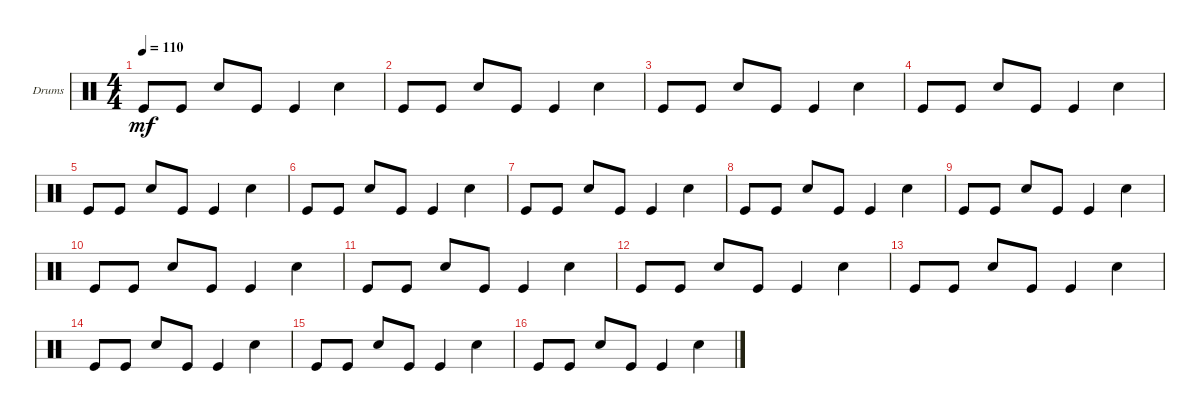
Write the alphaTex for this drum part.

\defaultSystemsLayout 4
\bracketExtendMode groupsimilarinstruments
\firstSystemTrackNameOrientation horizontal
\otherSystemsTrackNameOrientation horizontal
\track ("Drumkit" "Drums") {instrument percussion}
\staff {score}
\articulation defaults
\ts (4 4)
\tempo 110
\clef neutral
\scale
0.333333
\ks c "Kick (hit)".8{dy mf} "Kick (hit)".8 "Snare (hit) 2".8 "Kick (hit)".8 "Kick (hit)".4 "Snare (hit) 2".4
|
\scale
0.333333 "Kick (hit)".8 "Kick (hit)".8 "Snare (hit) 2".8 "Kick (hit)".8 "Kick (hit)".4 "Snare (hit) 2".4 |
\scale
0.333333 "Kick (hit)".8 "Kick (hit)".8 "Snare (hit) 2".8 "Kick (hit)".8 "Kick (hit)".4 "Snare (hit) 2".4 |
\scale
0.333333 "Kick (hit)".8 "Kick (hit)".8 "Snare (hit) 2".8 "Kick (hit)".8 "Kick (hit)".4 "Snare (hit) 2".4 |
\scale
0.333333 "Kick (hit)".8 "Kick (hit)".8 "Snare (hit) 2".8 "Kick (hit)".8 "Kick (hit)".4 "Snare (hit) 2".4 |
\scale
0.333333 "Kick (hit)".8 "Kick (hit)".8 "Snare (hit) 2".8 "Kick (hit)".8 "Kick (hit)".4 "Snare (hit) 2".4 |
\scale
0.333333 "Kick (hit)".8 "Kick (hit)".8 "Snare (hit) 2".8 "Kick (hit)".8 "Kick (hit)".4 "Snare (hit) 2".4 |
\scale
0.333333 "Kick (hit)".8 "Kick (hit)".8 "Snare (hit) 2".8 "Kick (hit)".8 "Kick (hit)".4 "Snare (hit) 2".4 |
\scale
0.333333 "Kick (hit)".8 "Kick (hit)".8 "Snare (hit) 2".8 "Kick (hit)".8 "Kick (hit)".4 "Snare (hit) 2".4 |
\scale
0.333333 "Kick (hit)".8 "Kick (hit)".8 "Snare (hit) 2".8 "Kick (hit)".8 "Kick (hit)".4 "Snare (hit) 2".4 |
\scale
0.333333 "Kick (hit)".8 "Kick (hit)".8 "Snare (hit) 2".8 "Kick (hit)".8 "Kick (hit)".4 "Snare (hit) 2".4 |
\scale
0.333333 "Kick (hit)".8 "Kick (hit)".8 "Snare (hit) 2".8 "Kick (hit)".8 "Kick (hit)".4 "Snare (hit) 2".4 |
\scale
0.333333 "Kick (hit)".8 "Kick (hit)".8 "Snare (hit) 2".8 "Kick (hit)".8 "Kick (hit)".4 "Snare (hit) 2".4 |
\scale
0.333333 "Kick (hit)".8 "Kick (hit)".8 "Snare (hit) 2".8 "Kick (hit)".8 "Kick (hit)".4 "Snare (hit) 2".4 |
\scale
0.333333 "Kick (hit)".8 "Kick (hit)".8 "Snare (hit) 2".8 "Kick (hit)".8 "Kick (hit)".4 "Snare (hit) 2".4 |
\scale
0.333333 "Kick (hit)".8 "Kick (hit)".8 "Snare (hit) 2".8 "Kick (hit)".8 "Kick (hit)".4 "Snare (hit) 2".4
